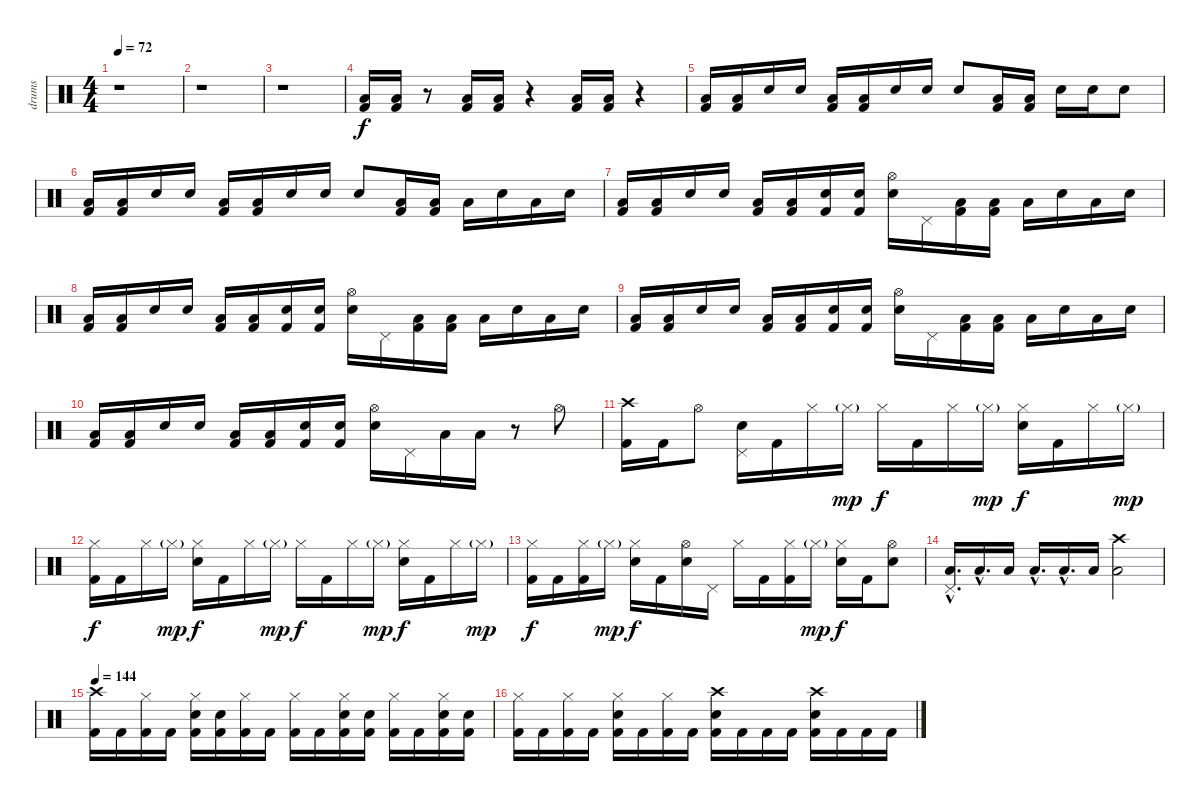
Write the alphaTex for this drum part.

\track ("drums" "drums") {instrument percussion}
\staff {score}
\articulation defaults
\ts (4 4)
\tempo 72
\clef neutral
\ks c
r.1{dy f} |
r.1 |
r.1 |
("Low Floor Tom (hit)" "Kick (hit) 2").16 ("Low Floor Tom (hit)" "Kick (hit) 2").16 r.8 ("Low Floor Tom (hit)" "Kick (hit) 2").16 ("Low Floor Tom (hit)" "Kick (hit) 2").16 r.4 ("Low Floor Tom (hit)" "Kick (hit) 2").16 ("Low Floor Tom (hit)" "Kick (hit) 2").16 r.4 |
("Low Floor Tom (hit)" "Kick (hit) 2").16 ("Low Floor Tom (hit)" "Kick (hit) 2").16 "Electric Snare (hit)".16 "Electric Snare (hit)".16 ("Low Floor Tom (hit)" "Kick (hit) 2").16 ("Low Floor Tom (hit)" "Kick (hit) 2").16 "Electric Snare (hit)".16 "Electric Snare (hit)".16 "Electric Snare (hit)".8 ("Low Floor Tom (hit)" "Kick (hit) 2").16 ("Low Floor Tom (hit)" "Kick (hit) 2").16 "Electric Snare (hit)".16 "Electric Snare (hit)".16 "Electric Snare (hit)".8 |
("Low Floor Tom (hit)" "Kick (hit) 2").16 ("Low Floor Tom (hit)" "Kick (hit) 2").16 "Electric Snare (hit)".16 "Electric Snare (hit)".16 ("Low Floor Tom (hit)" "Kick (hit) 2").16 ("Low Floor Tom (hit)" "Kick (hit) 2").16 "Electric Snare (hit)".16 "Electric Snare (hit)".16 "Electric Snare (hit)".8 ("Low Floor Tom (hit)" "Kick (hit) 2").16 ("Low Floor Tom (hit)" "Kick (hit) 2").16 "Low Tom (hit)".16 "Electric Snare (hit)".16 "Low Tom (hit)".16 "Electric Snare (hit)".16 |
("Low Floor Tom (hit)" "Kick (hit) 2").16 ("Low Floor Tom (hit)" "Kick (hit) 2").16 "Electric Snare (hit)".16 "Electric Snare (hit)".16 ("Low Floor Tom (hit)" "Kick (hit) 2").16 ("Low Floor Tom (hit)" "Kick (hit) 2").16 ("Electric Snare (hit)" "Kick (hit) 2").16 ("Electric Snare (hit)" "Kick (hit) 2").16 ("Hi-Hat (open)" "Electric Snare (hit)").16 "Pedal Hi-Hat (hit)".16 ("Low Floor Tom (hit)" "Kick (hit) 2").16 ("Low Floor Tom (hit)" "Kick (hit) 2").16 "Low Tom (hit)".16 "Electric Snare (hit)".16 "Low Tom (hit)".16 "Electric Snare (hit)".16 |
("Low Floor Tom (hit)" "Kick (hit) 2").16 ("Low Floor Tom (hit)" "Kick (hit) 2").16 "Electric Snare (hit)".16 "Electric Snare (hit)".16 ("Low Floor Tom (hit)" "Kick (hit) 2").16 ("Low Floor Tom (hit)" "Kick (hit) 2").16 ("Electric Snare (hit)" "Kick (hit) 2").16 ("Electric Snare (hit)" "Kick (hit) 2").16 ("Hi-Hat (open)" "Electric Snare (hit)").16 "Pedal Hi-Hat (hit)".16 ("Low Floor Tom (hit)" "Kick (hit) 2").16 ("Low Floor Tom (hit)" "Kick (hit) 2").16 "Low Tom (hit)".16 "Electric Snare (hit)".16 "Low Tom (hit)".16 "Electric Snare (hit)".16 |
("Low Floor Tom (hit)" "Kick (hit) 2").16 ("Low Floor Tom (hit)" "Kick (hit) 2").16 "Electric Snare (hit)".16 "Electric Snare (hit)".16 ("Low Floor Tom (hit)" "Kick (hit) 2").16 ("Low Floor Tom (hit)" "Kick (hit) 2").16 ("Electric Snare (hit)" "Kick (hit) 2").16 ("Electric Snare (hit)" "Kick (hit) 2").16 ("Hi-Hat (open)" "Electric Snare (hit)").16 "Pedal Hi-Hat (hit)".16 ("Low Floor Tom (hit)" "Kick (hit) 2").16 ("Low Floor Tom (hit)" "Kick (hit) 2").16 "Low Tom (hit)".16 "Electric Snare (hit)".16 "Low Tom (hit)".16 "Electric Snare (hit)".16 |
("Low Floor Tom (hit)" "Kick (hit) 2").16 ("Low Floor Tom (hit)" "Kick (hit) 2").16 "Electric Snare (hit)".16 "Electric Snare (hit)".16 ("Low Floor Tom (hit)" "Kick (hit) 2").16 ("Low Floor Tom (hit)" "Kick (hit) 2").16 ("Electric Snare (hit)" "Kick (hit) 2").16 ("Electric Snare (hit)" "Kick (hit) 2").16 ("Hi-Hat (open)" "Electric Snare (hit)").16 "Pedal Hi-Hat (hit)".16 "Low Tom (hit)".16 "Low Tom (hit)".16 r.8 "Hi-Hat (open)".8 |
("Crash high (hit)" "Kick (hit) 2").16 "Kick (hit) 2".16 "Hi-Hat (open)".8 ("Electric Snare (hit)" "Pedal Hi-Hat (hit)").16 "Kick (hit) 2".16 "Hi-Hat (closed)".16 "Hi-Hat (closed)"{g}.16{dy mp} "Hi-Hat (closed)".16{dy f} "Kick (hit) 2".16 "Hi-Hat (closed)".16 "Hi-Hat (closed)"{g}.16{dy mp} ("Hi-Hat (closed)" "Electric Snare (hit)").16{dy f} "Kick (hit) 2".16 "Hi-Hat (closed)".16 "Hi-Hat (closed)"{g}.16{dy mp} |
("Hi-Hat (closed)" "Kick (hit) 2").16{dy f} "Kick (hit) 2".16 "Hi-Hat (closed)".16 "Hi-Hat (closed)"{g}.16{dy mp} ("Hi-Hat (closed)" "Electric Snare (hit)").16{dy f} "Kick (hit) 2".16 "Hi-Hat (closed)".16 "Hi-Hat (closed)"{g}.16{dy mp} "Hi-Hat (closed)".16{dy f} "Kick (hit) 2".16 "Hi-Hat (closed)".16 "Hi-Hat (closed)"{g}.16{dy mp} ("Hi-Hat (closed)" "Electric Snare (hit)").16{dy f} "Kick (hit) 2".16 "Hi-Hat (closed)".16 "Hi-Hat (closed)"{g}.16{dy mp} |
("Hi-Hat (closed)" "Kick (hit) 2").16{dy f} "Kick (hit) 2".16 ("Hi-Hat (closed)" "Kick (hit) 2").16 "Hi-Hat (closed)"{g}.16{dy mp} ("Hi-Hat (closed)" "Electric Snare (hit)").16{dy f} "Kick (hit) 2".16 ("Hi-Hat (open)" "Electric Snare (hit)").16 "Pedal Hi-Hat (hit)".16 "Hi-Hat (closed)".16 "Kick (hit) 2".16 ("Hi-Hat (closed)" "Kick (hit) 2").16 "Hi-Hat (closed)"{g}.16{dy mp} ("Hi-Hat (closed)" "Electric Snare (hit)").16{dy f} "Kick (hit) 2".16 ("Hi-Hat (open)" "Electric Snare (hit)").8 |
("Low Floor Tom (hit)"{hac} "Pedal Hi-Hat (hit)"{hac}).16{d} "Low Floor Tom (hit)"{hac}.16{d} "Low Floor Tom (hit)".16 "Low Floor Tom (hit)"{hac}.16{d} "Low Floor Tom (hit)"{hac}.16{d} "Low Floor Tom (hit)".16 ("Crash high (hit)" "Low Floor Tom (hit)").2 |
\tempo 144
("Crash high (hit)" "Kick (hit) 2").16 "Kick (hit) 2".16 ("Hi-Hat (closed)" "Kick (hit) 2").16 "Kick (hit) 2".16 ("Hi-Hat (closed)" "Electric Snare (hit)" "Kick (hit) 2").16 ("Electric Snare (hit)" "Kick (hit) 2").16 ("Hi-Hat (closed)" "Kick (hit) 2").16 "Kick (hit) 2".16 ("Hi-Hat (closed)" "Kick (hit) 2").16 "Kick (hit) 2".16 ("Hi-Hat (closed)" "Electric Snare (hit)" "Kick (hit) 2").16 ("Electric Snare (hit)" "Kick (hit) 2").16 ("Hi-Hat (closed)" "Kick (hit) 2").16 "Kick (hit) 2".16 ("Hi-Hat (closed)" "Electric Snare (hit)" "Kick (hit) 2").16 ("Electric Snare (hit)" "Kick (hit) 2").16 |
("Hi-Hat (closed)" "Kick (hit) 2").16 "Kick (hit) 2".16 ("Hi-Hat (closed)" "Kick (hit) 2").16 "Kick (hit) 2".16 ("Hi-Hat (closed)" "Electric Snare (hit)" "Kick (hit) 2").16 "Kick (hit) 2".16 ("Hi-Hat (closed)" "Kick (hit) 2").16 "Kick (hit) 2".16 ("Crash high (hit)" "Electric Snare (hit)" "Kick (hit) 2").16 "Kick (hit) 2".16 "Kick (hit) 2".16 "Kick (hit) 2".16 ("Crash high (hit)" "Electric Snare (hit)" "Kick (hit) 2").16 "Kick (hit) 2".16 "Kick (hit) 2".16 "Kick (hit) 2".16
